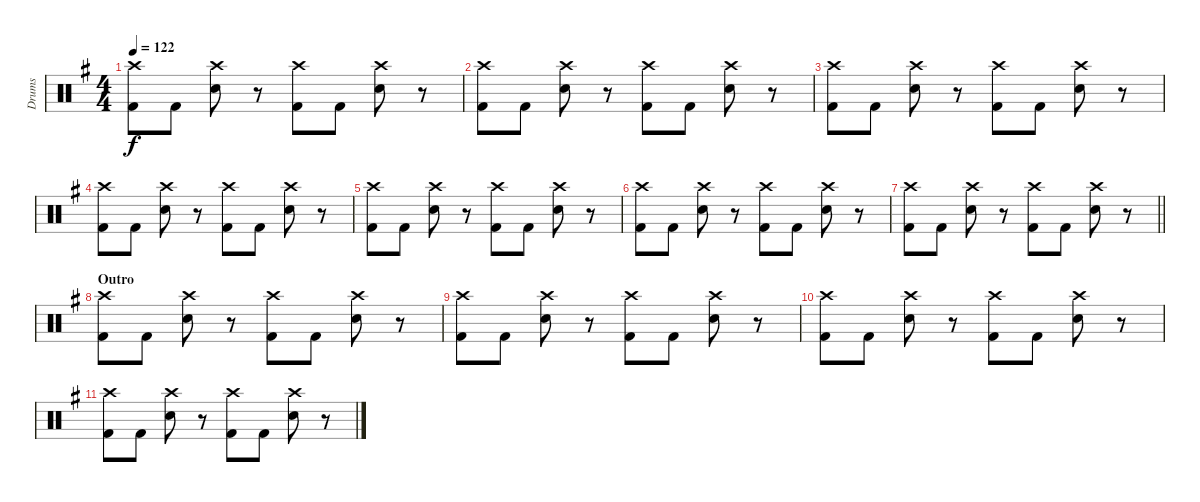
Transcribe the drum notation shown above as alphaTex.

\track ("Drums" "Drums") {instrument percussion bank 127}
\staff {score}
\articulation defaults
\ts (4 4)
\tempo 122
\clef neutral
\ks eminor
("Crash high (hit)" "Kick (hit) 2").8{dy f} "Kick (hit) 2".8 ("Crash high (hit)" "Snare (hit) 2").8 r.8 ("Crash high (hit)" "Kick (hit) 2").8 "Kick (hit) 2".8 ("Crash high (hit)" "Snare (hit) 2").8 r.8 |
("Crash high (hit)" "Kick (hit) 2").8 "Kick (hit) 2".8 ("Crash high (hit)" "Snare (hit) 2").8 r.8 ("Crash high (hit)" "Kick (hit) 2").8 "Kick (hit) 2".8 ("Crash high (hit)" "Snare (hit) 2").8 r.8 |
("Crash high (hit)" "Kick (hit) 2").8 "Kick (hit) 2".8 ("Crash high (hit)" "Snare (hit) 2").8 r.8 ("Crash high (hit)" "Kick (hit) 2").8 "Kick (hit) 2".8 ("Crash high (hit)" "Snare (hit) 2").8 r.8 |
("Crash high (hit)" "Kick (hit) 2").8 "Kick (hit) 2".8 ("Crash high (hit)" "Snare (hit) 2").8 r.8 ("Crash high (hit)" "Kick (hit) 2").8 "Kick (hit) 2".8 ("Crash high (hit)" "Snare (hit) 2").8 r.8 |
("Crash high (hit)" "Kick (hit) 2").8 "Kick (hit) 2".8 ("Crash high (hit)" "Snare (hit) 2").8 r.8 ("Crash high (hit)" "Kick (hit) 2").8 "Kick (hit) 2".8 ("Crash high (hit)" "Snare (hit) 2").8 r.8 |
("Crash high (hit)" "Kick (hit) 2").8 "Kick (hit) 2".8 ("Crash high (hit)" "Snare (hit) 2").8 r.8 ("Crash high (hit)" "Kick (hit) 2").8 "Kick (hit) 2".8 ("Crash high (hit)" "Snare (hit) 2").8 r.8 |
\barLineRight lightlight
("Crash high (hit)" "Kick (hit) 2").8 "Kick (hit) 2".8 ("Crash high (hit)" "Snare (hit) 2").8 r.8 ("Crash high (hit)" "Kick (hit) 2").8 "Kick (hit) 2".8 ("Crash high (hit)" "Snare (hit) 2").8 r.8 |
\section ("" "Outro")
("Crash high (hit)" "Kick (hit) 2").8 "Kick (hit) 2".8 ("Crash high (hit)" "Snare (hit) 2").8 r.8 ("Crash high (hit)" "Kick (hit) 2").8 "Kick (hit) 2".8 ("Crash high (hit)" "Snare (hit) 2").8 r.8 |
("Crash high (hit)" "Kick (hit) 2").8 "Kick (hit) 2".8 ("Crash high (hit)" "Snare (hit) 2").8 r.8 ("Crash high (hit)" "Kick (hit) 2").8 "Kick (hit) 2".8 ("Crash high (hit)" "Snare (hit) 2").8 r.8 |
("Crash high (hit)" "Kick (hit) 2").8 "Kick (hit) 2".8 ("Crash high (hit)" "Snare (hit) 2").8 r.8 ("Crash high (hit)" "Kick (hit) 2").8 "Kick (hit) 2".8 ("Crash high (hit)" "Snare (hit) 2").8 r.8 |
("Crash high (hit)" "Kick (hit) 2").8 "Kick (hit) 2".8 ("Crash high (hit)" "Snare (hit) 2").8 r.8 ("Crash high (hit)" "Kick (hit) 2").8 "Kick (hit) 2".8 ("Crash high (hit)" "Snare (hit) 2").8 r.8
